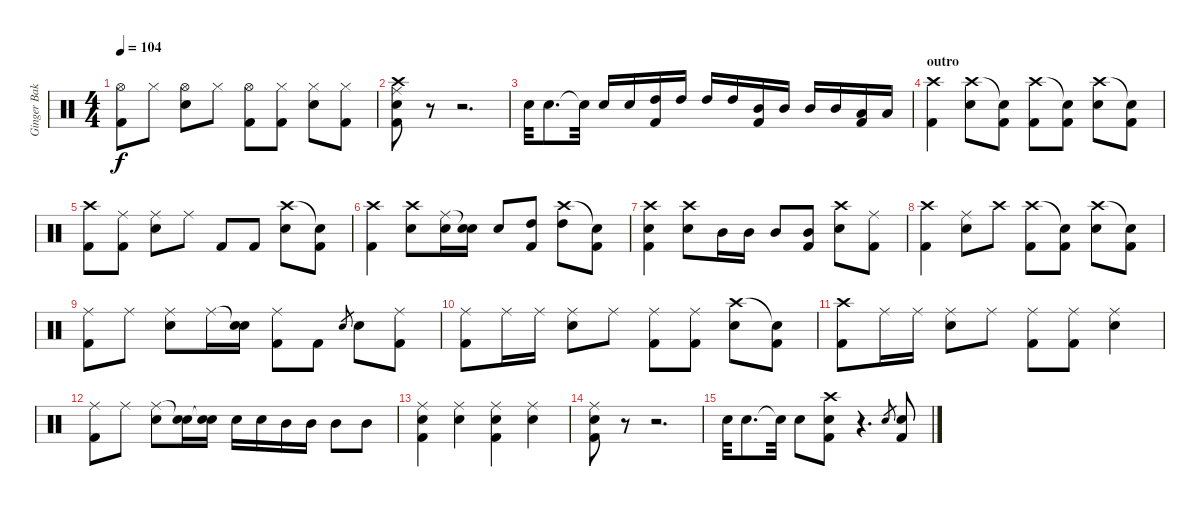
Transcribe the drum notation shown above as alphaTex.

\track ("Ginger Baker" "Ginger Bak") {instrument percussion}
\staff {score}
\articulation defaults
\ts (4 4)
\tempo 104
\clef neutral
\ks c
("Hi-Hat (open)" "Kick (hit) 2").8{dy f} "Hi-Hat (closed)".8 ("Hi-Hat (open)" "Snare (hit) 2").8 "Hi-Hat (closed)".8 ("Hi-Hat (open)" "Kick (hit) 2").8 ("Hi-Hat (closed)" "Kick (hit) 2").8 ("Hi-Hat (closed)" "Snare (hit) 2").8 ("Hi-Hat (closed)" "Kick (hit) 2").8 |
("Crash high (hit)" "Ride (middle)" "Snare (hit) 2" "Kick (hit) 2").8 r.8 r.2{d} |
"Snare (hit) 2".32 "Snare (hit) 2".8{d} "Snare (hit)"{t}.32 "Snare (hit) 2".16 "Snare (hit) 2".16 ("High Tom (hit)" "Kick (hit) 2").16 "High Tom (hit)".16 "High Tom (hit)".16 "High Tom (hit)".16 ("Mid Tom (hit)" "Kick (hit) 2").16 "Mid Tom (hit)".16 "Mid Tom (hit)".16 "Mid Tom (hit)".16 ("Low Tom (hit)" "Kick (hit) 2").16 "Low Tom (hit)".16 |
\section ("" "outro")
("Crash high (hit)" "Kick (hit) 2").4 ("Crash high (hit)" "Snare (hit) 2").8 ("Snare (hit)"{t} "Kick (hit) 2").8 ("Crash high (hit)" "Kick (hit) 2").8 ("Snare (hit)"{t} "Kick (hit) 2").8 ("Crash high (hit)" "Snare (hit) 2").8 ("Snare (hit)"{t} "Kick (hit) 2").8 |
("Crash high (hit)" "Kick (hit) 2").8 ("Ride (middle)" "Kick (hit) 2").8 ("Ride (middle)" "Snare (hit) 2").8 "Ride (middle)".8 "Kick (hit) 2".8 "Kick (hit) 2".8 ("Crash high (hit)" "Snare (hit) 2").8 ("Snare (hit)"{t} "Kick (hit) 2").8 |
("Crash high (hit)" "Kick (hit) 2").4 ("Crash high (hit)" "Snare (hit) 2").8 ("Ride (middle)" "Snare (hit) 2").16 ("Snare (hit)"{t} "Snare (hit) 2").16 "Snare (hit) 2".8 ("High Tom (hit)" "Kick (hit) 2").8 ("Crash high (hit)" "High Tom (hit)").8 ("Snare (hit)"{t} "Kick (hit) 2").8 |
("Crash high (hit)" "Snare (hit) 2" "Kick (hit) 2").4 ("Crash high (hit)" "Snare (hit) 2").8 "Mid Tom (hit)".16 "Mid Tom (hit)".16 "Mid Tom (hit)".8 ("Mid Tom (hit)" "Kick (hit) 2").8 ("Crash high (hit)" "Snare (hit) 2").8 ("Ride (middle)" "Kick (hit) 2").8 |
("Crash high (hit)" "Kick (hit) 2").4 ("Ride (middle)" "Snare (hit) 2").8 "Crash high (hit)".8 ("Crash high (hit)" "Kick (hit) 2").8 ("Snare (hit)"{t} "Kick (hit) 2").8 ("Crash high (hit)" "Snare (hit) 2").8 ("Snare (hit)"{t} "Kick (hit) 2").8 |
("Ride (middle)" "Kick (hit) 2").8 "Ride (middle)".8 ("Ride (middle)" "Snare (hit) 2").8 "Ride (middle)".16 ("Snare (hit)"{t} "Snare (hit) 2").16 ("Ride (middle)" "Kick (hit) 2").8 "Kick (hit) 2".8 "Snare (hit) 2".8{gr} "Snare (hit) 2".8 ("Ride (middle)" "Kick (hit) 2").8 |
("Ride (middle)" "Kick (hit) 2").8 "Ride (middle)".16 "Ride (middle)".16 ("Ride (middle)" "Snare (hit) 2").8 "Ride (middle)".8 ("Ride (middle)" "Kick (hit) 2").8 ("Ride (middle)" "Kick (hit) 2").8 ("Crash high (hit)" "Snare (hit) 2").8 ("Snare (hit)"{t} "Kick (hit) 2").8 |
("Crash high (hit)" "Kick (hit) 2").8 "Ride (middle)".16 "Ride (middle)".16 ("Ride (middle)" "Snare (hit) 2").8 "Ride (middle)".8 ("Ride (middle)" "Kick (hit) 2").8 ("Ride (middle)" "Kick (hit) 2").8 ("Ride (middle)" "Snare (hit) 2").4 |
("Ride (middle)" "Kick (hit) 2").8 "Ride (middle)".8 ("Ride (middle)" "Snare (hit) 2").8 ("Snare (hit)"{t} "Snare (hit) 2").16 ("Snare (hit)"{t} "Snare (hit) 2").16 "Snare (hit) 2".16 "Snare (hit) 2".16 "Mid Tom (hit)".16 "Mid Tom (hit)".16 "Mid Tom (hit)".8 "Mid Tom (hit)".8 |
("Ride (middle)" "Snare (hit) 2" "Kick (hit) 2").4 ("Ride (middle)" "Snare (hit) 2").4 ("Ride (middle)" "Snare (hit) 2" "Kick (hit) 2").4 ("Ride (middle)" "Snare (hit) 2").4 |
("Ride (middle)" "Snare (hit) 2" "Kick (hit) 2").8 r.8 r.2{d} |
"Snare (hit) 2".32 "Snare (hit) 2".8{d} "Snare (hit)"{t}.32 "Snare (hit) 2".8 ("Crash high (hit)" "Snare (hit) 2" "Kick (hit) 2").8 r.4{d} "Snare (hit) 2".8{gr} ("Snare (hit) 2" "Kick (hit) 2").8
